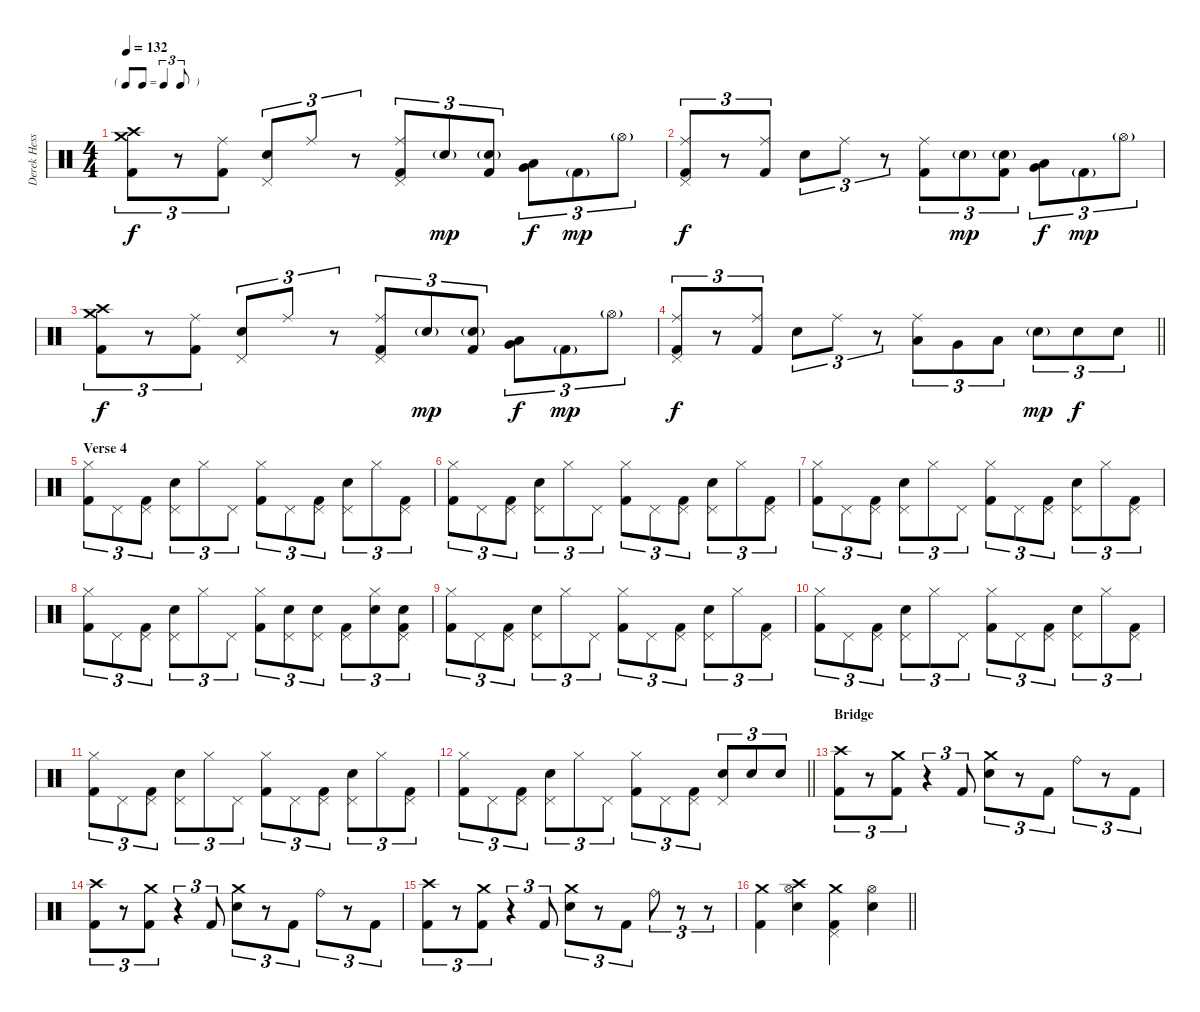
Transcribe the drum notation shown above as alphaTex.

\track ("Derek Hess (Drums and Percussion)" "Derek Hess") {instrument percussion}
\staff {score}
\articulation defaults
\ts (4 4)
\tf triplet8th
\tempo 132
\clef neutral
\ks c
("Crash high (hit)" "Crash medium (hit)" "Kick (hit) 2").8{tu (3 2) dy f} r.8{tu (3 2)} ("Ride (middle)" "Kick (hit) 2").8{tu (3 2)} ("Snare (hit) 2" "Pedal Hi-Hat (hit)").8{tu (3 2)} "Ride (middle)".8{tu (3 2)} r.8{tu (3 2)} ("Ride (middle)" "Pedal Hi-Hat (hit)" "Kick (hit) 2").8{tu (3 2)} "Snare (hit) 2"{g}.8{tu (3 2) dy mp} ("Snare (hit) 2"{g} "Kick (hit) 2").8{tu (3 2)} ("Low Floor Tom (hit)" "Very Low Tom (hit)").8{tu (3 2) dy f} "Kick (hit) 2"{g}.8{tu (3 2) dy mp} "Hi-Hat (open)"{g}.8{tu (3 2)} |
("Ride (middle)" "Pedal Hi-Hat (hit)" "Kick (hit) 2").8{tu (3 2) dy f} r.8{tu (3 2)} ("Ride (middle)" "Kick (hit) 2").8{tu (3 2)} "Snare (hit) 2".8{tu (3 2)} "Ride (middle)".8{tu (3 2)} r.8{tu (3 2)} ("Ride (middle)" "Kick (hit) 2").8{tu (3 2)} "Snare (hit) 2"{g}.8{tu (3 2) dy mp} ("Snare (hit) 2"{g} "Kick (hit) 2").8{tu (3 2)} ("Low Floor Tom (hit)" "Very Low Tom (hit)").8{tu (3 2) dy f} "Kick (hit) 2"{g}.8{tu (3 2) dy mp} "Hi-Hat (open)"{g}.8{tu (3 2)} |
("Crash high (hit)" "Crash medium (hit)" "Kick (hit) 2").8{tu (3 2) dy f} r.8{tu (3 2)} ("Ride (middle)" "Kick (hit) 2").8{tu (3 2)} ("Snare (hit) 2" "Pedal Hi-Hat (hit)").8{tu (3 2)} "Ride (middle)".8{tu (3 2)} r.8{tu (3 2)} ("Ride (middle)" "Pedal Hi-Hat (hit)" "Kick (hit) 2").8{tu (3 2)} "Snare (hit) 2"{g}.8{tu (3 2) dy mp} ("Snare (hit) 2"{g} "Kick (hit) 2").8{tu (3 2)} ("Low Floor Tom (hit)" "Very Low Tom (hit)").8{tu (3 2) dy f} "Kick (hit) 2"{g}.8{tu (3 2) dy mp} "Hi-Hat (open)"{g}.8{tu (3 2)} |
\barLineRight lightlight
("Ride (middle)" "Pedal Hi-Hat (hit)" "Kick (hit) 2").8{tu (3 2) dy f} r.8{tu (3 2)} ("Ride (middle)" "Kick (hit) 2").8{tu (3 2)} "Snare (hit) 2".8{tu (3 2)} "Ride (middle)".8{tu (3 2)} r.8{tu (3 2)} ("Ride (middle)" "Low Tom (hit)").8{tu (3 2)} "Very Low Tom (hit)".8{tu (3 2)} "Low Floor Tom (hit)".8{tu (3 2)} "Snare (hit) 2"{g}.8{tu (3 2) dy mp} "Snare (hit) 2".8{tu (3 2) dy f} "Snare (hit) 2".8{tu (3 2)} |
\section ("" "Verse 4")
("Hi-Hat (closed)" "Kick (hit) 2").8{tu (3 2)} "Pedal Hi-Hat (hit)".8{tu (3 2)} ("Pedal Hi-Hat (hit)" "Kick (hit) 2").8{tu (3 2)} ("Snare (hit) 2" "Pedal Hi-Hat (hit)").8{tu (3 2)} "Hi-Hat (closed)".8{tu (3 2)} "Pedal Hi-Hat (hit)".8{tu (3 2)} ("Hi-Hat (closed)" "Kick (hit) 2").8{tu (3 2)} "Pedal Hi-Hat (hit)".8{tu (3 2)} ("Pedal Hi-Hat (hit)" "Kick (hit) 2").8{tu (3 2)} ("Snare (hit) 2" "Pedal Hi-Hat (hit)").8{tu (3 2)} "Hi-Hat (closed)".8{tu (3 2)} ("Pedal Hi-Hat (hit)" "Kick (hit) 2").8{tu (3 2)} |
("Hi-Hat (closed)" "Kick (hit) 2").8{tu (3 2)} "Pedal Hi-Hat (hit)".8{tu (3 2)} ("Pedal Hi-Hat (hit)" "Kick (hit) 2").8{tu (3 2)} ("Snare (hit) 2" "Pedal Hi-Hat (hit)").8{tu (3 2)} "Hi-Hat (closed)".8{tu (3 2)} "Pedal Hi-Hat (hit)".8{tu (3 2)} ("Hi-Hat (closed)" "Kick (hit) 2").8{tu (3 2)} "Pedal Hi-Hat (hit)".8{tu (3 2)} ("Pedal Hi-Hat (hit)" "Kick (hit) 2").8{tu (3 2)} ("Snare (hit) 2" "Pedal Hi-Hat (hit)").8{tu (3 2)} "Hi-Hat (closed)".8{tu (3 2)} ("Pedal Hi-Hat (hit)" "Kick (hit) 2").8{tu (3 2)} |
("Hi-Hat (closed)" "Kick (hit) 2").8{tu (3 2)} "Pedal Hi-Hat (hit)".8{tu (3 2)} ("Pedal Hi-Hat (hit)" "Kick (hit) 2").8{tu (3 2)} ("Snare (hit) 2" "Pedal Hi-Hat (hit)").8{tu (3 2)} "Hi-Hat (closed)".8{tu (3 2)} "Pedal Hi-Hat (hit)".8{tu (3 2)} ("Hi-Hat (closed)" "Kick (hit) 2").8{tu (3 2)} "Pedal Hi-Hat (hit)".8{tu (3 2)} ("Pedal Hi-Hat (hit)" "Kick (hit) 2").8{tu (3 2)} ("Snare (hit) 2" "Pedal Hi-Hat (hit)").8{tu (3 2)} "Hi-Hat (closed)".8{tu (3 2)} ("Pedal Hi-Hat (hit)" "Kick (hit) 2").8{tu (3 2)} |
("Hi-Hat (closed)" "Kick (hit) 2").8{tu (3 2)} "Pedal Hi-Hat (hit)".8{tu (3 2)} ("Pedal Hi-Hat (hit)" "Kick (hit) 2").8{tu (3 2)} ("Snare (hit) 2" "Pedal Hi-Hat (hit)").8{tu (3 2)} "Hi-Hat (closed)".8{tu (3 2)} "Pedal Hi-Hat (hit)".8{tu (3 2)} ("Hi-Hat (closed)" "Kick (hit) 2").8{tu (3 2)} ("Snare (hit) 2" "Pedal Hi-Hat (hit)").8{tu (3 2)} ("Snare (hit) 2" "Pedal Hi-Hat (hit)").8{tu (3 2)} ("Pedal Hi-Hat (hit)" "Kick (hit) 2").8{tu (3 2)} ("Snare (hit) 2" "Hi-Hat (closed)").8{tu (3 2)} ("Snare (hit) 2" "Pedal Hi-Hat (hit)" "Kick (hit) 2").8{tu (3 2)} |
("Hi-Hat (closed)" "Kick (hit) 2").8{tu (3 2)} "Pedal Hi-Hat (hit)".8{tu (3 2)} ("Pedal Hi-Hat (hit)" "Kick (hit) 2").8{tu (3 2)} ("Snare (hit) 2" "Pedal Hi-Hat (hit)").8{tu (3 2)} "Hi-Hat (closed)".8{tu (3 2)} "Pedal Hi-Hat (hit)".8{tu (3 2)} ("Hi-Hat (closed)" "Kick (hit) 2").8{tu (3 2)} "Pedal Hi-Hat (hit)".8{tu (3 2)} ("Pedal Hi-Hat (hit)" "Kick (hit) 2").8{tu (3 2)} ("Snare (hit) 2" "Pedal Hi-Hat (hit)").8{tu (3 2)} "Hi-Hat (closed)".8{tu (3 2)} ("Pedal Hi-Hat (hit)" "Kick (hit) 2").8{tu (3 2)} |
("Hi-Hat (closed)" "Kick (hit) 2").8{tu (3 2)} "Pedal Hi-Hat (hit)".8{tu (3 2)} ("Pedal Hi-Hat (hit)" "Kick (hit) 2").8{tu (3 2)} ("Snare (hit) 2" "Pedal Hi-Hat (hit)").8{tu (3 2)} "Hi-Hat (closed)".8{tu (3 2)} "Pedal Hi-Hat (hit)".8{tu (3 2)} ("Hi-Hat (closed)" "Kick (hit) 2").8{tu (3 2)} "Pedal Hi-Hat (hit)".8{tu (3 2)} ("Pedal Hi-Hat (hit)" "Kick (hit) 2").8{tu (3 2)} ("Snare (hit) 2" "Pedal Hi-Hat (hit)").8{tu (3 2)} "Hi-Hat (closed)".8{tu (3 2)} ("Pedal Hi-Hat (hit)" "Kick (hit) 2").8{tu (3 2)} |
("Hi-Hat (closed)" "Kick (hit) 2").8{tu (3 2)} "Pedal Hi-Hat (hit)".8{tu (3 2)} ("Pedal Hi-Hat (hit)" "Kick (hit) 2").8{tu (3 2)} ("Snare (hit) 2" "Pedal Hi-Hat (hit)").8{tu (3 2)} "Hi-Hat (closed)".8{tu (3 2)} "Pedal Hi-Hat (hit)".8{tu (3 2)} ("Hi-Hat (closed)" "Kick (hit) 2").8{tu (3 2)} "Pedal Hi-Hat (hit)".8{tu (3 2)} ("Pedal Hi-Hat (hit)" "Kick (hit) 2").8{tu (3 2)} ("Snare (hit) 2" "Pedal Hi-Hat (hit)").8{tu (3 2)} "Hi-Hat (closed)".8{tu (3 2)} ("Pedal Hi-Hat (hit)" "Kick (hit) 2").8{tu (3 2)} |
\barLineRight lightlight
("Hi-Hat (closed)" "Kick (hit) 2").8{tu (3 2)} "Pedal Hi-Hat (hit)".8{tu (3 2)} ("Pedal Hi-Hat (hit)" "Kick (hit) 2").8{tu (3 2)} ("Snare (hit) 2" "Pedal Hi-Hat (hit)").8{tu (3 2)} "Hi-Hat (closed)".8{tu (3 2)} "Pedal Hi-Hat (hit)".8{tu (3 2)} ("Hi-Hat (closed)" "Kick (hit) 2").8{tu (3 2)} "Pedal Hi-Hat (hit)".8{tu (3 2)} ("Pedal Hi-Hat (hit)" "Kick (hit) 2").8{tu (3 2)} ("Snare (hit) 2" "Pedal Hi-Hat (hit)").8{tu (3 2)} "Snare (hit) 2".8{tu (3 2)} "Snare (hit) 2".8{tu (3 2)} |
\section ("" "Bridge")
("Crash high (hit)" "Kick (hit) 2").8{tu (3 2)} r.8{tu (3 2)} ("Crash medium (hit)" "Kick (hit) 2").8{tu (3 2)} r.4{tu (3 2)} "Kick (hit) 2".8{tu (3 2)} ("Crash medium (hit)" "Snare (hit) 2").8{tu (3 2)} r.8{tu (3 2)} "Kick (hit) 2".8{tu (3 2)} "Ride (bell)".8{tu (3 2)} r.8{tu (3 2)} "Kick (hit) 2".8{tu (3 2)} |
("Crash high (hit)" "Kick (hit) 2").8{tu (3 2)} r.8{tu (3 2)} ("Crash medium (hit)" "Kick (hit) 2").8{tu (3 2)} r.4{tu (3 2)} "Kick (hit) 2".8{tu (3 2)} ("Crash medium (hit)" "Snare (hit) 2").8{tu (3 2)} r.8{tu (3 2)} "Kick (hit) 2".8{tu (3 2)} "Ride (bell)".8{tu (3 2)} r.8{tu (3 2)} "Kick (hit) 2".8{tu (3 2)} |
("Crash high (hit)" "Kick (hit) 2").8{tu (3 2)} r.8{tu (3 2)} ("Crash medium (hit)" "Kick (hit) 2").8{tu (3 2)} r.4{tu (3 2)} "Kick (hit) 2".8{tu (3 2)} ("Crash medium (hit)" "Snare (hit) 2").8{tu (3 2)} r.8{tu (3 2)} "Kick (hit) 2".8{tu (3 2)} "Ride (bell)".8{tu (3 2)} r.8{tu (3 2)} r.8{tu (3 2)} |
\barLineRight lightlight
("Crash medium (hit)" "Kick (hit) 2").4 ("Crash high (hit)" "Snare (hit) 2" "Hi-Hat (open)").4 ("Crash medium (hit)" "Pedal Hi-Hat (hit)" "Kick (hit) 2").4 ("Snare (hit) 2" "Hi-Hat (open)").4
